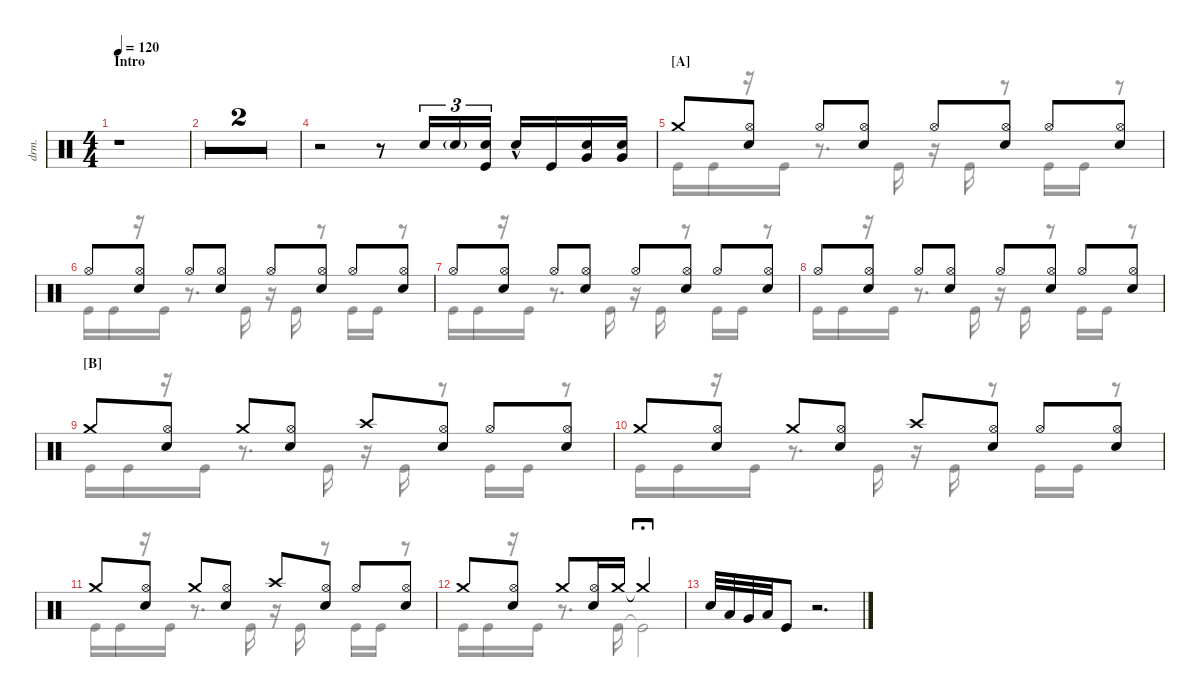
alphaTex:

\defaultSystemsLayout 2
\hideDynamics
\bracketExtendMode nobrackets
\otherSystemsTrackNameOrientation horizontal
\track ("Drums" "drm.") {defaultSystemsLayout 2 multiBarRest instrument percussion}
\staff {score}
\articulation defaults
\voice
\ts (4 4)
\section ("" "Intro")
\scale
1.04052
\tempo 120
\accidentals auto
\clef neutral
\ottava regular
\simile none
\scale
1.3484
\ks c
r.1{dy mf beam Down} |
\scale
0.959485
\scale
1.3484 r.1{beam Down} |
\scale
1.04026
\scale
1.3484 r.1{beam Down} |
\scale
0.959737
\scale
0.651595 r.2{beam Down} r.8{beam Down} "Snare (hit) 2".16{tu (3 2) beam Up} "Snare (hit) 2"{g}.16{tu (3 2) beam Up} ("Snare (hit) 2" "Kick (hit)").16{tu (3 2) beam Up} "Snare (hit) 2"{hac}.16{beam Up} "Kick (hit)".16{beam Up} ("Snare (hit) 2" "Very Low Tom (hit)").16{beam Up} ("Snare (hit) 2" "Very Low Tom (hit)").16{beam Up} |
\section ("A" "")
\scale
1.04547
\scale
1.03578 "Crash medium (hit)".8{beam Up} ("Hi-Hat (open)" "Snare (hit) 2").8{beam Up} "Hi-Hat (open)".8{beam Up} ("Hi-Hat (open)" "Snare (hit) 2").8{beam Up} "Hi-Hat (open)".8{beam Up} ("Hi-Hat (open)" "Snare (hit) 2").8{beam Up} "Hi-Hat (open)".8{beam Up} ("Hi-Hat (open)" "Snare (hit) 2").8{beam Up} |
\scale
0.954526
\scale
0.964221 "Hi-Hat (open)".8{beam Up} ("Hi-Hat (open)" "Snare (hit) 2").8{beam Up} "Hi-Hat (open)".8{beam Up} ("Hi-Hat (open)" "Snare (hit) 2").8{beam Up} "Hi-Hat (open)".8{beam Up} ("Hi-Hat (open)" "Snare (hit) 2").8{beam Up} "Hi-Hat (open)".8{beam Up} ("Hi-Hat (open)" "Snare (hit) 2").8{beam Up} |
\scale
1.04026
\scale
1.03057 "Hi-Hat (open)".8{beam Up} ("Hi-Hat (open)" "Snare (hit) 2").8{beam Up} "Hi-Hat (open)".8{beam Up} ("Hi-Hat (open)" "Snare (hit) 2").8{beam Up} "Hi-Hat (open)".8{beam Up} ("Hi-Hat (open)" "Snare (hit) 2").8{beam Up} "Hi-Hat (open)".8{beam Up} ("Hi-Hat (open)" "Snare (hit) 2").8{beam Up} |
\scale
0.959737
\scale
0.969432 "Hi-Hat (open)".8{beam Up} ("Hi-Hat (open)" "Snare (hit) 2").8{beam Up} "Hi-Hat (open)".8{beam Up} ("Hi-Hat (open)" "Snare (hit) 2").8{beam Up} "Hi-Hat (open)".8{beam Up} ("Hi-Hat (open)" "Snare (hit) 2").8{beam Up} "Hi-Hat (open)".8{beam Up} ("Hi-Hat (open)" "Snare (hit) 2").8{beam Up} |
\section ("B" "")
\scale
1.04547
\scale
1.03578 "Crash medium (hit)".8{beam Up} ("Hi-Hat (open)" "Snare (hit) 2").8{beam Up} "Crash medium (hit)".8{beam Up} ("Hi-Hat (open)" "Snare (hit) 2").8{beam Up} "Crash high (hit)".8{beam Up} ("Hi-Hat (open)" "Snare (hit) 2").8{beam Up} "Hi-Hat (open)".8{beam Up} ("Hi-Hat (open)" "Snare (hit) 2").8{beam Up} |
\scale
0.954526
\scale
0.964221 "Crash medium (hit)".8{beam Up} ("Hi-Hat (open)" "Snare (hit) 2").8{beam Up} "Crash medium (hit)".8{beam Up} ("Hi-Hat (open)" "Snare (hit) 2").8{beam Up} "Crash high (hit)".8{beam Up} ("Hi-Hat (open)" "Snare (hit) 2").8{beam Up} "Hi-Hat (open)".8{beam Up} ("Hi-Hat (open)" "Snare (hit) 2").8{beam Up} |
\scale
1.22408
\scale
1.03578 "Crash medium (hit)".8{beam Up} ("Hi-Hat (open)" "Snare (hit) 2").8{beam Up} "Crash medium (hit)".8{beam Up} ("Hi-Hat (open)" "Snare (hit) 2").8{beam Up} "Crash high (hit)".8{beam Up} ("Hi-Hat (open)" "Snare (hit) 2").8{beam Up} "Hi-Hat (open)".8{beam Up} ("Hi-Hat (open)" "Snare (hit) 2").8{beam Up} |
\scale
1.0222
\scale
0.964221 "Crash medium (hit)".8{beam Up} ("Hi-Hat (open)" "Snare (hit) 2").8{beam Up} "Crash medium (hit)".8{beam Up} ("Hi-Hat (open)" "Snare (hit) 2").16{beam Up} "Crash medium (hit)".16{beam Up} "Crash medium (hit)"{t}.2{fermata (long 1) beam Up} |
\scale
0.753721 "Snare (hit) 2".32{beam Up} "Low Tom (hit)".32{beam Up} "Very Low Tom (hit)".32{beam Up} "Low Tom (hit)".32{beam Up} "Kick (hit)".8{beam Up} r.2{d beam Up}
\voice
\clef neutral
\ottava regular
\simile none
\scale
1.3484
\ks c
|
\scale
1.3484 |
\scale
1.3484 |
\scale
0.651595 |
\scale
1.03578 "Kick (hit)".16{beam Down} "Kick (hit)".16{beam Down} r.16{beam Down} "Kick (hit)".16{beam Down} r.8{d beam Down} "Kick (hit)".16{beam Down} r.16{beam Down} "Kick (hit)".16{beam Down} r.8{beam Down} "Kick (hit)".16{beam Down} "Kick (hit)".16{beam Down} r.8{beam Down} |
\scale
0.964221 "Kick (hit)".16{beam Down} "Kick (hit)".16{beam Down} r.16{beam Down} "Kick (hit)".16{beam Down} r.8{d beam Down} "Kick (hit)".16{beam Down} r.16{beam Down} "Kick (hit)".16{beam Down} r.8{beam Down} "Kick (hit)".16{beam Down} "Kick (hit)".16{beam Down} r.8{beam Down} |
\scale
1.03057 "Kick (hit)".16{beam Down} "Kick (hit)".16{beam Down} r.16{beam Down} "Kick (hit)".16{beam Down} r.8{d beam Down} "Kick (hit)".16{beam Down} r.16{beam Down} "Kick (hit)".16{beam Down} r.8{beam Down} "Kick (hit)".16{beam Down} "Kick (hit)".16{beam Down} r.8{beam Down} |
\scale
0.969432 "Kick (hit)".16{beam Down} "Kick (hit)".16{beam Down} r.16{beam Down} "Kick (hit)".16{beam Down} r.8{d beam Down} "Kick (hit)".16{beam Down} r.16{beam Down} "Kick (hit)".16{beam Down} r.8{beam Down} "Kick (hit)".16{beam Down} "Kick (hit)".16{beam Down} r.8{beam Down} |
\scale
1.03578 "Kick (hit)".16{beam Down} "Kick (hit)".16{beam Down} r.16{beam Down} "Kick (hit)".16{beam Down} r.8{d beam Down} "Kick (hit)".16{beam Down} r.16{beam Down} "Kick (hit)".16{beam Down} r.8{beam Down} "Kick (hit)".16{beam Down} "Kick (hit)".16{beam Down} r.8{beam Down} |
\scale
0.964221 "Kick (hit)".16{beam Down} "Kick (hit)".16{beam Down} r.16{beam Down} "Kick (hit)".16{beam Down} r.8{d beam Down} "Kick (hit)".16{beam Down} r.16{beam Down} "Kick (hit)".16{beam Down} r.8{beam Down} "Kick (hit)".16{beam Down} "Kick (hit)".16{beam Down} r.8{beam Down} |
\scale
1.03578 "Kick (hit)".16{beam Down} "Kick (hit)".16{beam Down} r.16{beam Down} "Kick (hit)".16{beam Down} r.8{d beam Down} "Kick (hit)".16{beam Down} r.16{beam Down} "Kick (hit)".16{beam Down} r.8{beam Down} "Kick (hit)".16{beam Down} "Kick (hit)".16{beam Down} r.8{beam Down} |
\scale
0.964221 "Kick (hit)".16{beam Down} "Kick (hit)".16{beam Down} r.16{beam Down} "Kick (hit)".16{beam Down} r.8{d beam Down} "Kick (hit)".16{beam Down} "Kick (hit)"{t}.2{fermata (long 1) beam Down} |
